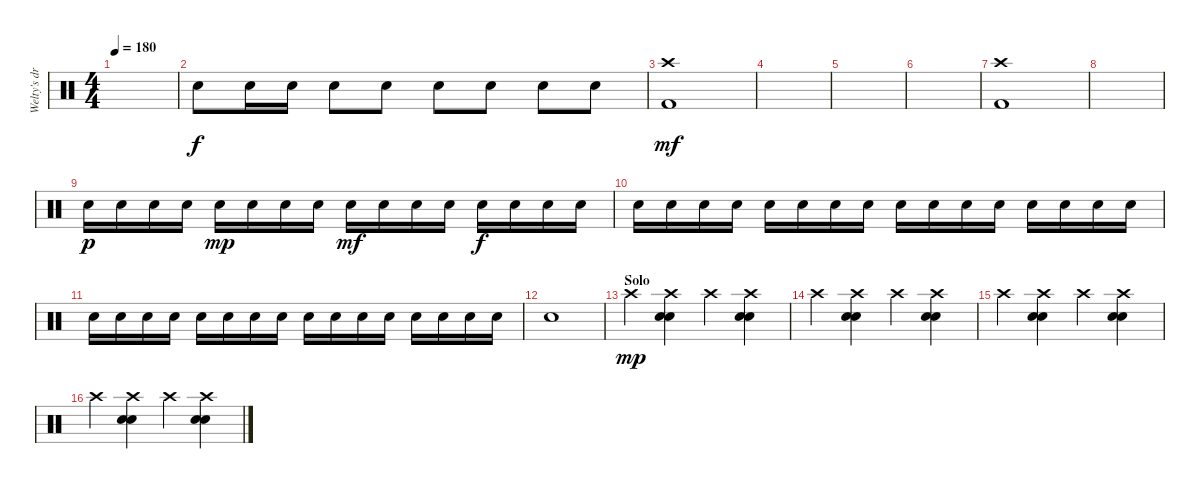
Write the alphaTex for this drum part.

\track ("Welty's drums" "Welty's dr") {instrument percussion}
\staff {score}
\articulation defaults
\ts (4 4)
\tempo 180
\clef neutral
\ks c
|
"Electric Snare (hit)".8 "Electric Snare (hit)".16 "Electric Snare (hit)".16 "Electric Snare (hit)".8 "Electric Snare (hit)".8 "Electric Snare (hit)".8 "Electric Snare (hit)".8 "Electric Snare (hit)".8 "Electric Snare (hit)".8 |
("Crash high (hit)" "Kick (hit) 2").1{dy mf} |
|
|
|
("Crash high (hit)" "Kick (hit) 2").1 |
|
"Electric Snare (hit)".16{dy p} "Electric Snare (hit)".16 "Electric Snare (hit)".16 "Electric Snare (hit)".16 "Electric Snare (hit)".16{dy mp} "Electric Snare (hit)".16 "Electric Snare (hit)".16 "Electric Snare (hit)".16 "Electric Snare (hit)".16{dy mf} "Electric Snare (hit)".16 "Electric Snare (hit)".16 "Electric Snare (hit)".16 "Electric Snare (hit)".16{dy f} "Electric Snare (hit)".16 "Electric Snare (hit)".16 "Electric Snare (hit)".16 |
"Electric Snare (hit)".16 "Electric Snare (hit)".16 "Electric Snare (hit)".16 "Electric Snare (hit)".16 "Electric Snare (hit)".16 "Electric Snare (hit)".16 "Electric Snare (hit)".16 "Electric Snare (hit)".16 "Electric Snare (hit)".16 "Electric Snare (hit)".16 "Electric Snare (hit)".16 "Electric Snare (hit)".16 "Electric Snare (hit)".16 "Electric Snare (hit)".16 "Electric Snare (hit)".16 "Electric Snare (hit)".16 |
"Electric Snare (hit)".16 "Electric Snare (hit)".16 "Electric Snare (hit)".16 "Electric Snare (hit)".16 "Electric Snare (hit)".16 "Electric Snare (hit)".16 "Electric Snare (hit)".16 "Electric Snare (hit)".16 "Electric Snare (hit)".16 "Electric Snare (hit)".16 "Electric Snare (hit)".16 "Electric Snare (hit)".16 "Electric Snare (hit)".16 "Electric Snare (hit)".16 "Electric Snare (hit)".16 "Electric Snare (hit)".16 |
"Electric Snare (hit)".1 |
\section ("" "Solo")
"Crash high (hit)".4{dy mp} ("Crash high (hit)" "Electric Snare (hit)" "Electric Snare (hit)").4 "Crash high (hit)".4 ("Crash high (hit)" "Electric Snare (hit)" "Electric Snare (hit)").4 |
"Crash high (hit)".4 ("Crash high (hit)" "Electric Snare (hit)" "Electric Snare (hit)").4 "Crash high (hit)".4 ("Crash high (hit)" "Electric Snare (hit)" "Electric Snare (hit)").4 |
"Crash high (hit)".4 ("Crash high (hit)" "Electric Snare (hit)" "Electric Snare (hit)").4 "Crash high (hit)".4 ("Crash high (hit)" "Electric Snare (hit)" "Electric Snare (hit)").4 |
"Crash high (hit)".4 ("Crash high (hit)" "Electric Snare (hit)" "Electric Snare (hit)").4 "Crash high (hit)".4 ("Crash high (hit)" "Electric Snare (hit)" "Electric Snare (hit)").4
